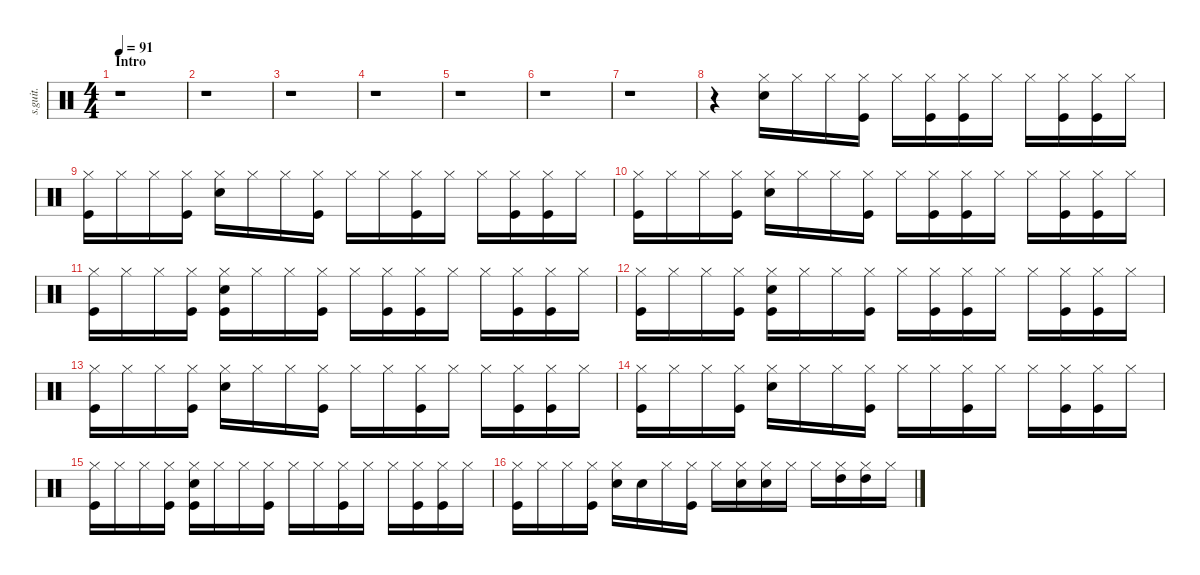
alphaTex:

\defaultSystemsLayout 4
\hideDynamics
\bracketExtendMode nobrackets
\track ("Chad" "s.guit.") {instrument percussion}
\staff {score}
\articulation defaults
\ts (4 4)
\beaming (8 2 2 2 2)
\section ("" "Intro")
\tempo 91
\clef neutral
\ks c
r.1{dy ppp} |
r.1 |
r.1 |
r.1 |
r.1 |
r.1 |
r.1 |
r.4 ("Hi-Hat (closed)" "Snare (hit) 2").16 "Hi-Hat (closed)".16 "Hi-Hat (closed)".16 ("Hi-Hat (closed)" "Kick (hit)").16 "Hi-Hat (closed)".16 ("Hi-Hat (closed)" "Kick (hit)").16 ("Hi-Hat (closed)" "Kick (hit)").16 "Hi-Hat (closed)".16 "Hi-Hat (closed)".16 ("Hi-Hat (closed)" "Kick (hit)").16 ("Hi-Hat (closed)" "Kick (hit)").16 "Hi-Hat (closed)".16 |
("Hi-Hat (closed)" "Kick (hit)").16{dy pp} "Hi-Hat (closed)".16 "Hi-Hat (closed)".16 ("Hi-Hat (closed)" "Kick (hit)").16 ("Hi-Hat (closed)" "Snare (hit) 2").16 "Hi-Hat (closed)".16 "Hi-Hat (closed)".16 ("Hi-Hat (closed)" "Kick (hit)").16 "Hi-Hat (closed)".16 "Hi-Hat (closed)".16 ("Hi-Hat (closed)" "Kick (hit)").16 "Hi-Hat (closed)".16 "Hi-Hat (closed)".16 ("Hi-Hat (closed)" "Kick (hit)").16 ("Hi-Hat (closed)" "Kick (hit)").16 "Hi-Hat (closed)".16 |
("Hi-Hat (closed)" "Kick (hit)").16{dy p} "Hi-Hat (closed)".16 "Hi-Hat (closed)".16 ("Hi-Hat (closed)" "Kick (hit)").16 ("Hi-Hat (closed)" "Snare (hit) 2").16 "Hi-Hat (closed)".16 "Hi-Hat (closed)".16 ("Hi-Hat (closed)" "Kick (hit)").16 "Hi-Hat (closed)".16 ("Hi-Hat (closed)" "Kick (hit)").16 ("Hi-Hat (closed)" "Kick (hit)").16 "Hi-Hat (closed)".16 "Hi-Hat (closed)".16 ("Hi-Hat (closed)" "Kick (hit)").16 ("Hi-Hat (closed)" "Kick (hit)").16 "Hi-Hat (closed)".16 |
("Hi-Hat (closed)" "Kick (hit)").16{dy mp} "Hi-Hat (closed)".16 "Hi-Hat (closed)".16 ("Hi-Hat (closed)" "Kick (hit)").16 ("Hi-Hat (closed)" "Snare (hit) 2" "Kick (hit)").16 "Hi-Hat (closed)".16 "Hi-Hat (closed)".16 ("Hi-Hat (closed)" "Kick (hit)").16 "Hi-Hat (closed)".16 ("Hi-Hat (closed)" "Kick (hit)").16 ("Hi-Hat (closed)" "Kick (hit)").16 "Hi-Hat (closed)".16 "Hi-Hat (closed)".16 ("Hi-Hat (closed)" "Kick (hit)").16 ("Hi-Hat (closed)" "Kick (hit)").16 "Hi-Hat (closed)".16 |
("Hi-Hat (closed)" "Kick (hit)").16{dy mf} "Hi-Hat (closed)".16 "Hi-Hat (closed)".16 ("Hi-Hat (closed)" "Kick (hit)").16 ("Hi-Hat (closed)" "Snare (hit) 2" "Kick (hit)").16 "Hi-Hat (closed)".16 "Hi-Hat (closed)".16 ("Hi-Hat (closed)" "Kick (hit)").16 "Hi-Hat (closed)".16 ("Hi-Hat (closed)" "Kick (hit)").16 ("Hi-Hat (closed)" "Kick (hit)").16 "Hi-Hat (closed)".16 "Hi-Hat (closed)".16 ("Hi-Hat (closed)" "Kick (hit)").16 ("Hi-Hat (closed)" "Kick (hit)").16 "Hi-Hat (closed)".16 |
("Hi-Hat (closed)" "Kick (hit)").16{dy f} "Hi-Hat (closed)".16 "Hi-Hat (closed)".16 ("Hi-Hat (closed)" "Kick (hit)").16 ("Hi-Hat (closed)" "Snare (hit) 2").16 "Hi-Hat (closed)".16 "Hi-Hat (closed)".16 ("Hi-Hat (closed)" "Kick (hit)").16 "Hi-Hat (closed)".16 "Hi-Hat (closed)".16 ("Hi-Hat (closed)" "Kick (hit)").16 "Hi-Hat (closed)".16 "Hi-Hat (closed)".16 ("Hi-Hat (closed)" "Kick (hit)").16 ("Hi-Hat (closed)" "Kick (hit)").16 "Hi-Hat (closed)".16 |
("Hi-Hat (closed)" "Kick (hit)").16 "Hi-Hat (closed)".16 "Hi-Hat (closed)".16 ("Hi-Hat (closed)" "Kick (hit)").16 ("Hi-Hat (closed)" "Snare (hit) 2").16 "Hi-Hat (closed)".16 "Hi-Hat (closed)".16 ("Hi-Hat (closed)" "Kick (hit)").16 "Hi-Hat (closed)".16 "Hi-Hat (closed)".16 ("Hi-Hat (closed)" "Kick (hit)").16 "Hi-Hat (closed)".16 "Hi-Hat (closed)".16 ("Hi-Hat (closed)" "Kick (hit)").16 ("Hi-Hat (closed)" "Kick (hit)").16 "Hi-Hat (closed)".16 |
("Hi-Hat (closed)" "Kick (hit)").16 "Hi-Hat (closed)".16 "Hi-Hat (closed)".16 ("Hi-Hat (closed)" "Kick (hit)").16 ("Hi-Hat (closed)" "Snare (hit) 2" "Kick (hit)").16 "Hi-Hat (closed)".16 "Hi-Hat (closed)".16 ("Hi-Hat (closed)" "Kick (hit)").16 "Hi-Hat (closed)".16 "Hi-Hat (closed)".16 ("Hi-Hat (closed)" "Kick (hit)").16 "Hi-Hat (closed)".16 "Hi-Hat (closed)".16 ("Hi-Hat (closed)" "Kick (hit)").16 ("Hi-Hat (closed)" "Kick (hit)").16 "Hi-Hat (closed)".16 |
("Hi-Hat (closed)" "Kick (hit)").16 "Hi-Hat (closed)".16 "Hi-Hat (closed)".16 ("Hi-Hat (closed)" "Kick (hit)").16 ("Hi-Hat (closed)" "Snare (hit) 2").16 "Snare (hit) 2".16 "Hi-Hat (closed)".16 ("Hi-Hat (closed)" "Kick (hit)").16 "Hi-Hat (closed)".16 ("Hi-Hat (closed)" "Snare (hit) 2").16 ("Hi-Hat (closed)" "Snare (hit) 2").16 "Hi-Hat (closed)".16 "Hi-Hat (closed)".16 ("Hi-Hat (closed)" "High Tom (hit)").16 ("Hi-Hat (closed)" "High Tom (hit)").16 "Hi-Hat (closed)".16
